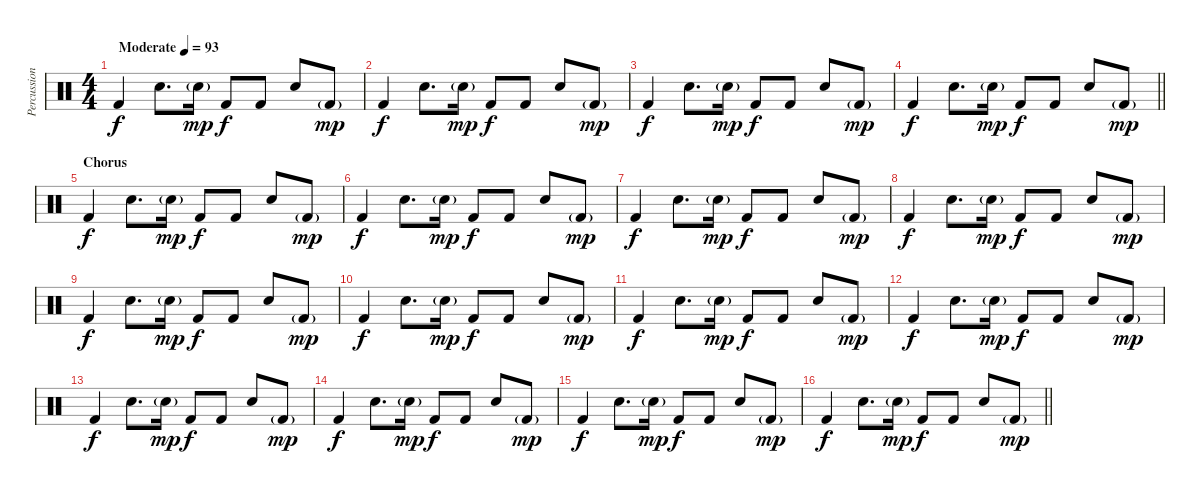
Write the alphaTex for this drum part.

\track ("Percussion" "Percussion") {instrument percussion}
\staff {score}
\articulation defaults
\ts (4 4)
\tempo (93 "Moderate")
\clef neutral
\ks c "Kick (hit) 2".4{dy f} "Snare (hit) 2".8{d} "Snare (hit) 2"{g}.16{dy mp} "Kick (hit) 2".8{dy f} "Kick (hit) 2".8 "Snare (hit) 2".8 "Kick (hit) 2"{g}.8{dy mp}
|
"Kick (hit) 2".4{dy f} "Snare (hit) 2".8{d} "Snare (hit) 2"{g}.16{dy mp} "Kick (hit) 2".8{dy f} "Kick (hit) 2".8 "Snare (hit) 2".8 "Kick (hit) 2"{g}.8{dy mp} |
"Kick (hit) 2".4{dy f} "Snare (hit) 2".8{d} "Snare (hit) 2"{g}.16{dy mp} "Kick (hit) 2".8{dy f} "Kick (hit) 2".8 "Snare (hit) 2".8 "Kick (hit) 2"{g}.8{dy mp} |
\barLineRight lightlight "Kick (hit) 2".4{dy f} "Snare (hit) 2".8{d} "Snare (hit) 2"{g}.16{dy mp} "Kick (hit) 2".8{dy f} "Kick (hit) 2".8 "Snare (hit) 2".8 "Kick (hit) 2"{g}.8{dy mp}
|
\section ("" "Chorus")
"Kick (hit) 2".4{dy f} "Snare (hit) 2".8{d} "Snare (hit) 2"{g}.16{dy mp} "Kick (hit) 2".8{dy f} "Kick (hit) 2".8 "Snare (hit) 2".8 "Kick (hit) 2"{g}.8{dy mp} |
"Kick (hit) 2".4{dy f} "Snare (hit) 2".8{d} "Snare (hit) 2"{g}.16{dy mp} "Kick (hit) 2".8{dy f} "Kick (hit) 2".8 "Snare (hit) 2".8 "Kick (hit) 2"{g}.8{dy mp} |
"Kick (hit) 2".4{dy f} "Snare (hit) 2".8{d} "Snare (hit) 2"{g}.16{dy mp} "Kick (hit) 2".8{dy f} "Kick (hit) 2".8 "Snare (hit) 2".8 "Kick (hit) 2"{g}.8{dy mp} |
"Kick (hit) 2".4{dy f} "Snare (hit) 2".8{d} "Snare (hit) 2"{g}.16{dy mp} "Kick (hit) 2".8{dy f} "Kick (hit) 2".8 "Snare (hit) 2".8 "Kick (hit) 2"{g}.8{dy mp} |
"Kick (hit) 2".4{dy f} "Snare (hit) 2".8{d} "Snare (hit) 2"{g}.16{dy mp} "Kick (hit) 2".8{dy f} "Kick (hit) 2".8 "Snare (hit) 2".8 "Kick (hit) 2"{g}.8{dy mp} |
"Kick (hit) 2".4{dy f} "Snare (hit) 2".8{d} "Snare (hit) 2"{g}.16{dy mp} "Kick (hit) 2".8{dy f} "Kick (hit) 2".8 "Snare (hit) 2".8 "Kick (hit) 2"{g}.8{dy mp} |
"Kick (hit) 2".4{dy f} "Snare (hit) 2".8{d} "Snare (hit) 2"{g}.16{dy mp} "Kick (hit) 2".8{dy f} "Kick (hit) 2".8 "Snare (hit) 2".8 "Kick (hit) 2"{g}.8{dy mp} |
"Kick (hit) 2".4{dy f} "Snare (hit) 2".8{d} "Snare (hit) 2"{g}.16{dy mp} "Kick (hit) 2".8{dy f} "Kick (hit) 2".8 "Snare (hit) 2".8 "Kick (hit) 2"{g}.8{dy mp} |
"Kick (hit) 2".4{dy f} "Snare (hit) 2".8{d} "Snare (hit) 2"{g}.16{dy mp} "Kick (hit) 2".8{dy f} "Kick (hit) 2".8 "Snare (hit) 2".8 "Kick (hit) 2"{g}.8{dy mp} |
"Kick (hit) 2".4{dy f} "Snare (hit) 2".8{d} "Snare (hit) 2"{g}.16{dy mp} "Kick (hit) 2".8{dy f} "Kick (hit) 2".8 "Snare (hit) 2".8 "Kick (hit) 2"{g}.8{dy mp} |
"Kick (hit) 2".4{dy f} "Snare (hit) 2".8{d} "Snare (hit) 2"{g}.16{dy mp} "Kick (hit) 2".8{dy f} "Kick (hit) 2".8 "Snare (hit) 2".8 "Kick (hit) 2"{g}.8{dy mp} |
\barLineRight lightlight "Kick (hit) 2".4{dy f} "Snare (hit) 2".8{d} "Snare (hit) 2"{g}.16{dy mp} "Kick (hit) 2".8{dy f} "Kick (hit) 2".8 "Snare (hit) 2".8 "Kick (hit) 2"{g}.8{dy mp}
